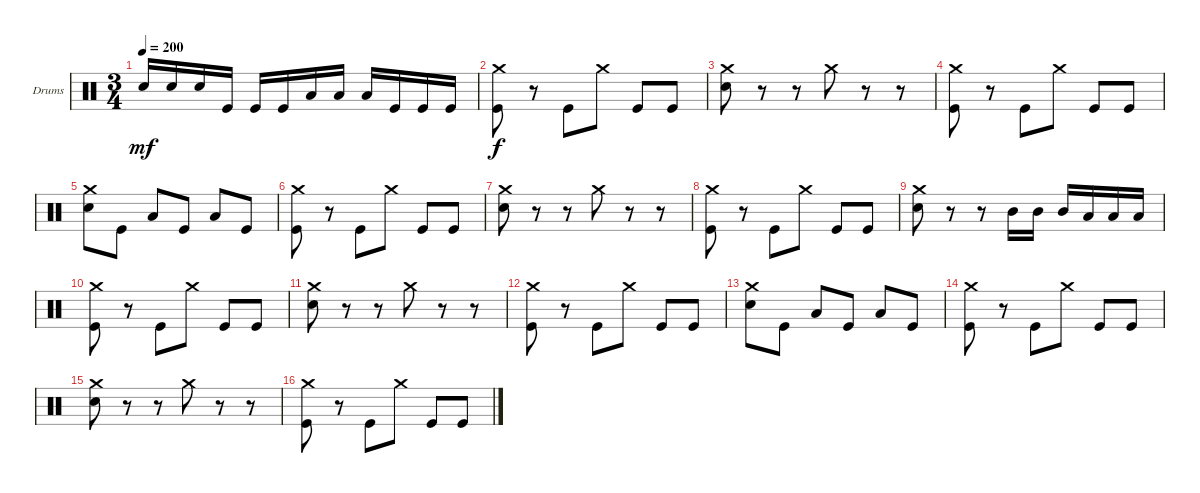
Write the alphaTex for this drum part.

\bracketExtendMode groupsimilarinstruments
\firstSystemTrackNameOrientation horizontal
\otherSystemsTrackNameOrientation horizontal
\track ("Drumkit" "Drums") {instrument percussion}
\staff {score}
\articulation defaults
\ts (3 4)
\tempo 200
\clef neutral
\ks c "Snare (hit) 2".16{dy mf} "Snare (hit) 2".16 "Snare (hit) 2".16 "Kick (hit)".16 "Kick (hit)".16 "Kick (hit)".16 "Low Tom (hit)".16 "Low Tom (hit)".16 "Low Tom (hit)".16 "Kick (hit)".16 "Kick (hit)".16 "Kick (hit)".16
|
("Kick (hit)" "Crash medium (hit)").8{dy f} r.8 "Kick (hit)".8 "Crash medium (hit)".8 "Kick (hit)".8 "Kick (hit)".8 |
("Snare (hit) 2" "Crash medium (hit)").8 r.8 r.8 "Crash medium (hit)".8 r.8 r.8 |
("Kick (hit)" "Crash medium (hit)").8 r.8 "Kick (hit)".8 "Crash medium (hit)".8 "Kick (hit)".8 "Kick (hit)".8 |
("Snare (hit) 2" "Crash medium (hit)").8 "Kick (hit)".8 "Low Tom (hit)".8 "Kick (hit)".8 "Low Tom (hit)".8 "Kick (hit)".8 |
("Kick (hit)" "Crash medium (hit)").8 r.8 "Kick (hit)".8 "Crash medium (hit)".8 "Kick (hit)".8 "Kick (hit)".8 |
("Snare (hit) 2" "Crash medium (hit)").8 r.8 r.8 "Crash medium (hit)".8 r.8 r.8 |
("Kick (hit)" "Crash medium (hit)").8 r.8 "Kick (hit)".8 "Crash medium (hit)".8 "Kick (hit)".8 "Kick (hit)".8 |
("Snare (hit) 2" "Crash medium (hit)").8 r.8 r.8 "Mid Tom (hit)".16 "Mid Tom (hit)".16 "Mid Tom (hit)".16 "Low Tom (hit)".16 "Low Tom (hit)".16 "Low Tom (hit)".16 |
("Kick (hit)" "Crash medium (hit)").8 r.8 "Kick (hit)".8 "Crash medium (hit)".8 "Kick (hit)".8 "Kick (hit)".8 |
("Snare (hit) 2" "Crash medium (hit)").8 r.8 r.8 "Crash medium (hit)".8 r.8 r.8 |
("Kick (hit)" "Crash medium (hit)").8 r.8 "Kick (hit)".8 "Crash medium (hit)".8 "Kick (hit)".8 "Kick (hit)".8 |
("Snare (hit) 2" "Crash medium (hit)").8 "Kick (hit)".8 "Low Tom (hit)".8 "Kick (hit)".8 "Low Tom (hit)".8 "Kick (hit)".8 |
("Kick (hit)" "Crash medium (hit)").8 r.8 "Kick (hit)".8 "Crash medium (hit)".8 "Kick (hit)".8 "Kick (hit)".8 |
("Snare (hit) 2" "Crash medium (hit)").8 r.8 r.8 "Crash medium (hit)".8 r.8 r.8 |
("Kick (hit)" "Crash medium (hit)").8 r.8 "Kick (hit)".8 "Crash medium (hit)".8 "Kick (hit)".8 "Kick (hit)".8
